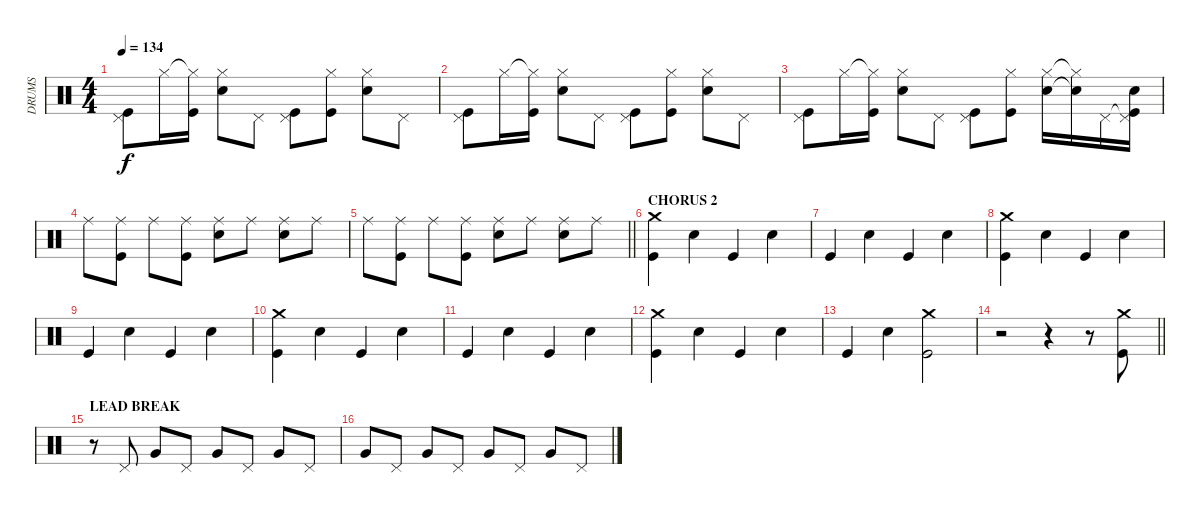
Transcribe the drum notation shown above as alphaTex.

\track ("DRUMS" "DRUMS") {instrument percussion}
\staff {score}
\articulation defaults
\ts (4 4)
\tempo 134
\clef neutral
\ks c
("Pedal Hi-Hat (hit)" "Kick (hit)").8{dy f} "Hi-Hat (closed)".16 ("Hi-Hat (closed)"{t} "Kick (hit)").16 ("Hi-Hat (closed)" "Snare (hit) 2").8 "Pedal Hi-Hat (hit)".8 ("Pedal Hi-Hat (hit)" "Kick (hit)").8 ("Hi-Hat (closed)" "Kick (hit)").8 ("Hi-Hat (closed)" "Snare (hit) 2").8 "Pedal Hi-Hat (hit)".8 |
("Pedal Hi-Hat (hit)" "Kick (hit)").8 "Hi-Hat (closed)".16 ("Hi-Hat (closed)"{t} "Kick (hit)").16 ("Hi-Hat (closed)" "Snare (hit) 2").8 "Pedal Hi-Hat (hit)".8 ("Pedal Hi-Hat (hit)" "Kick (hit)").8 ("Hi-Hat (closed)" "Kick (hit)").8 ("Hi-Hat (closed)" "Snare (hit) 2").8 "Pedal Hi-Hat (hit)".8 |
("Pedal Hi-Hat (hit)" "Kick (hit)").8 "Hi-Hat (closed)".16 ("Hi-Hat (closed)"{t} "Kick (hit)").16 ("Hi-Hat (closed)" "Snare (hit) 2").8 "Pedal Hi-Hat (hit)".8 ("Pedal Hi-Hat (hit)" "Kick (hit)").8 ("Hi-Hat (closed)" "Kick (hit)").8 ("Hi-Hat (closed)" "Snare (hit) 2").16 ("Hi-Hat (closed)"{t} "Snare (hit) 2"{t}).16 "Pedal Hi-Hat (hit)".16 ("Pedal Hi-Hat (hit)"{t} "Snare (hit) 2" "Kick (hit)").16 |
"Ride (middle)".8 ("Ride (middle)" "Kick (hit)").8 "Ride (middle)".8 ("Ride (middle)" "Kick (hit)").8 ("Ride (middle)" "Snare (hit) 2").8 "Ride (middle)".8 ("Ride (middle)" "Snare (hit) 2").8 "Ride (middle)".8 |
\barLineRight lightlight "Ride (middle)".8
("Ride (middle)" "Kick (hit)").8 "Ride (middle)".8 ("Ride (middle)" "Kick (hit)").8 ("Ride (middle)" "Snare (hit) 2").8 "Ride (middle)".8 ("Ride (middle)" "Snare (hit) 2").8 "Ride (middle)".8 |
\section ("" "CHORUS 2")
("Crash medium (hit)" "Kick (hit)").4 "Snare (hit) 2".4 "Kick (hit)".4 "Snare (hit) 2".4 |
"Kick (hit)".4 "Snare (hit) 2".4 "Kick (hit)".4 "Snare (hit) 2".4 |
("Crash medium (hit)" "Kick (hit)").4 "Snare (hit) 2".4 "Kick (hit)".4 "Snare (hit) 2".4 |
"Kick (hit)".4 "Snare (hit) 2".4 "Kick (hit)".4 "Snare (hit) 2".4 |
("Crash medium (hit)" "Kick (hit)").4 "Snare (hit) 2".4 "Kick (hit)".4 "Snare (hit) 2".4 |
"Kick (hit)".4 "Snare (hit) 2".4 "Kick (hit)".4 "Snare (hit) 2".4 |
("Crash medium (hit)" "Kick (hit)").4 "Snare (hit) 2".4 "Kick (hit)".4 "Snare (hit) 2".4 |
"Kick (hit)".4 "Snare (hit) 2".4 ("Crash medium (hit)" "Kick (hit)").2 |
\barLineRight lightlight
r.2 r.4 r.8 ("Crash medium (hit)" "Kick (hit)").8 |
\section ("" "LEAD BREAK")
r.8 "Pedal Hi-Hat (hit)".8 "Very Low Tom (hit)".8 "Pedal Hi-Hat (hit)".8 "Very Low Tom (hit)".8 "Pedal Hi-Hat (hit)".8 "Very Low Tom (hit)".8 "Pedal Hi-Hat (hit)".8 |
"Very Low Tom (hit)".8 "Pedal Hi-Hat (hit)".8 "Very Low Tom (hit)".8 "Pedal Hi-Hat (hit)".8 "Very Low Tom (hit)".8 "Pedal Hi-Hat (hit)".8 "Very Low Tom (hit)".8 "Pedal Hi-Hat (hit)".8
